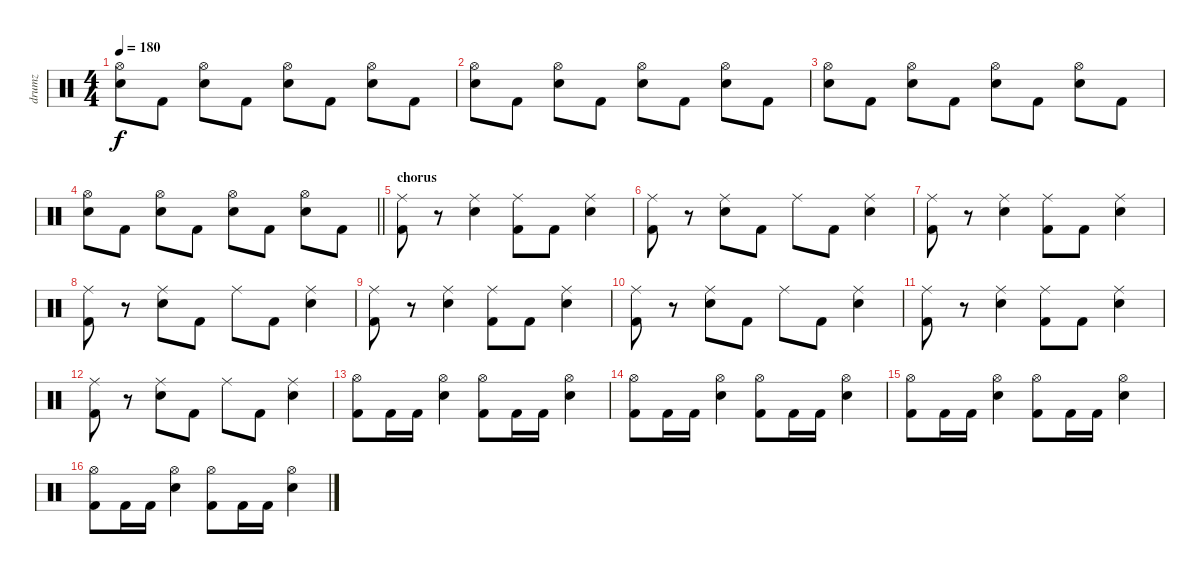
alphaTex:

\track ("drumz" "drumz") {instrument percussion}
\staff {score}
\articulation defaults
\ts (4 4)
\tempo 180
\clef neutral
\ks c
("Hi-Hat (open)" "Electric Snare (hit)").8{dy f} "Kick (hit) 2".8 ("Hi-Hat (open)" "Electric Snare (hit)").8 "Kick (hit) 2".8 ("Hi-Hat (open)" "Electric Snare (hit)").8 "Kick (hit) 2".8 ("Hi-Hat (open)" "Electric Snare (hit)").8 "Kick (hit) 2".8 |
("Hi-Hat (open)" "Electric Snare (hit)").8 "Kick (hit) 2".8 ("Hi-Hat (open)" "Electric Snare (hit)").8 "Kick (hit) 2".8 ("Hi-Hat (open)" "Electric Snare (hit)").8 "Kick (hit) 2".8 ("Hi-Hat (open)" "Electric Snare (hit)").8 "Kick (hit) 2".8 |
("Hi-Hat (open)" "Electric Snare (hit)").8 "Kick (hit) 2".8 ("Hi-Hat (open)" "Electric Snare (hit)").8 "Kick (hit) 2".8 ("Hi-Hat (open)" "Electric Snare (hit)").8 "Kick (hit) 2".8 ("Hi-Hat (open)" "Electric Snare (hit)").8 "Kick (hit) 2".8 |
\barLineRight lightlight
("Hi-Hat (open)" "Electric Snare (hit)").8 "Kick (hit) 2".8 ("Hi-Hat (open)" "Electric Snare (hit)").8 "Kick (hit) 2".8 ("Hi-Hat (open)" "Electric Snare (hit)").8 "Kick (hit) 2".8 ("Hi-Hat (open)" "Electric Snare (hit)").8 "Kick (hit) 2".8 |
\section ("" "chorus")
("Ride (middle)" "Kick (hit) 2").8 r.8 ("Ride (middle)" "Electric Snare (hit)").4 ("Ride (middle)" "Kick (hit) 2").8 "Kick (hit) 2".8 ("Ride (middle)" "Electric Snare (hit)").4 |
("Ride (middle)" "Kick (hit) 2").8 r.8 ("Ride (middle)" "Electric Snare (hit)").8 "Kick (hit) 2".8 "Ride (middle)".8 "Kick (hit) 2".8 ("Ride (middle)" "Electric Snare (hit)").4 |
("Ride (middle)" "Kick (hit) 2").8 r.8 ("Ride (middle)" "Electric Snare (hit)").4 ("Ride (middle)" "Kick (hit) 2").8 "Kick (hit) 2".8 ("Ride (middle)" "Electric Snare (hit)").4 |
("Ride (middle)" "Kick (hit) 2").8 r.8 ("Ride (middle)" "Electric Snare (hit)").8 "Kick (hit) 2".8 "Ride (middle)".8 "Kick (hit) 2".8 ("Ride (middle)" "Electric Snare (hit)").4 |
("Ride (middle)" "Kick (hit) 2").8 r.8 ("Ride (middle)" "Electric Snare (hit)").4 ("Ride (middle)" "Kick (hit) 2").8 "Kick (hit) 2".8 ("Ride (middle)" "Electric Snare (hit)").4 |
("Ride (middle)" "Kick (hit) 2").8 r.8 ("Ride (middle)" "Electric Snare (hit)").8 "Kick (hit) 2".8 "Ride (middle)".8 "Kick (hit) 2".8 ("Ride (middle)" "Electric Snare (hit)").4 |
("Ride (middle)" "Kick (hit) 2").8 r.8 ("Ride (middle)" "Electric Snare (hit)").4 ("Ride (middle)" "Kick (hit) 2").8 "Kick (hit) 2".8 ("Ride (middle)" "Electric Snare (hit)").4 |
("Ride (middle)" "Kick (hit) 2").8 r.8 ("Ride (middle)" "Electric Snare (hit)").8 "Kick (hit) 2".8 "Ride (middle)".8 "Kick (hit) 2".8 ("Ride (middle)" "Electric Snare (hit)").4 |
("Hi-Hat (open)" "Kick (hit) 2").8 "Kick (hit) 2".16 "Kick (hit) 2".16 ("Hi-Hat (open)" "Electric Snare (hit)").4 ("Hi-Hat (open)" "Kick (hit) 2").8 "Kick (hit) 2".16 "Kick (hit) 2".16 ("Hi-Hat (open)" "Electric Snare (hit)").4 |
("Hi-Hat (open)" "Kick (hit) 2").8 "Kick (hit) 2".16 "Kick (hit) 2".16 ("Hi-Hat (open)" "Electric Snare (hit)").4 ("Hi-Hat (open)" "Kick (hit) 2").8 "Kick (hit) 2".16 "Kick (hit) 2".16 ("Hi-Hat (open)" "Electric Snare (hit)").4 |
("Hi-Hat (open)" "Kick (hit) 2").8 "Kick (hit) 2".16 "Kick (hit) 2".16 ("Hi-Hat (open)" "Electric Snare (hit)").4 ("Hi-Hat (open)" "Kick (hit) 2").8 "Kick (hit) 2".16 "Kick (hit) 2".16 ("Hi-Hat (open)" "Electric Snare (hit)").4 |
("Hi-Hat (open)" "Kick (hit) 2").8 "Kick (hit) 2".16 "Kick (hit) 2".16 ("Hi-Hat (open)" "Electric Snare (hit)").4 ("Hi-Hat (open)" "Kick (hit) 2").8 "Kick (hit) 2".16 "Kick (hit) 2".16 ("Hi-Hat (open)" "Electric Snare (hit)").4
